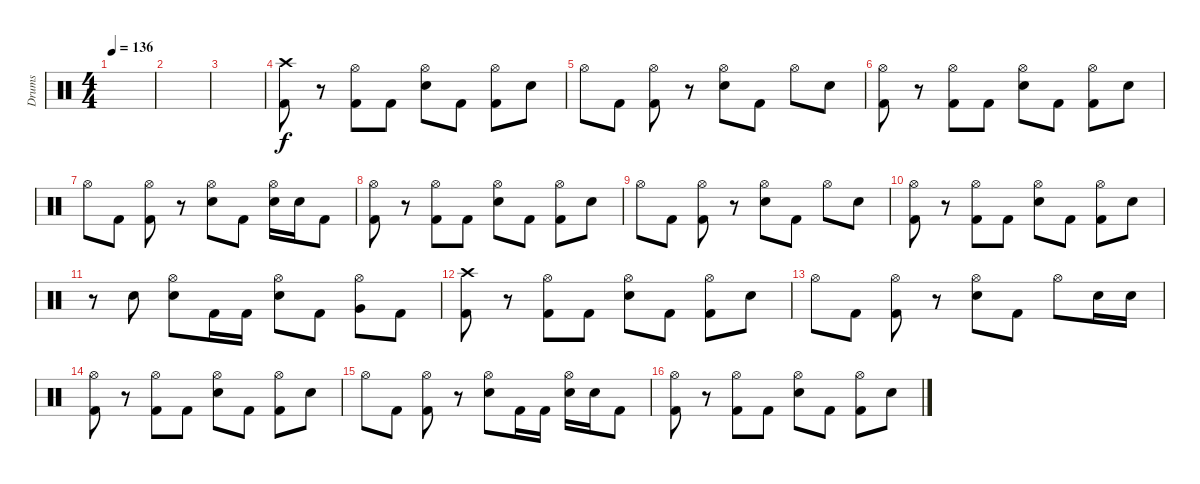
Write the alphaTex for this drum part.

\track ("Drums" "Drums") {instrument percussion}
\staff {score}
\articulation defaults
\ts (4 4)
\tempo 136
\clef neutral
\ks c
|
|
|
("Kick (hit) 2" "Crash high (hit)").8{dy f} r.8 ("Kick (hit) 2" "Hi-Hat (open)").8 "Kick (hit) 2".8 ("Snare (hit) 2" "Hi-Hat (open)").8 "Kick (hit) 2".8 ("Kick (hit) 2" "Hi-Hat (open)").8 "Snare (hit) 2".8 |
"Hi-Hat (open)".8 "Kick (hit) 2".8 ("Kick (hit) 2" "Hi-Hat (open)").8 r.8 ("Snare (hit) 2" "Hi-Hat (open)").8 "Kick (hit) 2".8 "Hi-Hat (open)".8 "Snare (hit) 2".8 |
("Kick (hit) 2" "Hi-Hat (open)").8 r.8 ("Kick (hit) 2" "Hi-Hat (open)").8 "Kick (hit) 2".8 ("Snare (hit) 2" "Hi-Hat (open)").8 "Kick (hit) 2".8 ("Kick (hit) 2" "Hi-Hat (open)").8 "Snare (hit) 2".8 |
"Hi-Hat (open)".8 "Kick (hit) 2".8 ("Kick (hit) 2" "Hi-Hat (open)").8 r.8 ("Snare (hit) 2" "Hi-Hat (open)").8 "Kick (hit) 2".8 ("Snare (hit) 2" "Hi-Hat (open)").16 "Snare (hit) 2".16 "Kick (hit) 2".8 |
("Kick (hit) 2" "Hi-Hat (open)").8 r.8 ("Kick (hit) 2" "Hi-Hat (open)").8 "Kick (hit) 2".8 ("Snare (hit) 2" "Hi-Hat (open)").8 "Kick (hit) 2".8 ("Kick (hit) 2" "Hi-Hat (open)").8 "Snare (hit) 2".8 |
"Hi-Hat (open)".8 "Kick (hit) 2".8 ("Kick (hit) 2" "Hi-Hat (open)").8 r.8 ("Snare (hit) 2" "Hi-Hat (open)").8 "Kick (hit) 2".8 "Hi-Hat (open)".8 "Snare (hit) 2".8 |
("Kick (hit) 2" "Hi-Hat (open)").8 r.8 ("Kick (hit) 2" "Hi-Hat (open)").8 "Kick (hit) 2".8 ("Snare (hit) 2" "Hi-Hat (open)").8 "Kick (hit) 2".8 ("Kick (hit) 2" "Hi-Hat (open)").8 "Snare (hit) 2".8 |
r.8 "Snare (hit) 2".8 ("Snare (hit) 2" "Hi-Hat (open)").8 "Kick (hit) 2".16 "Kick (hit) 2".16 ("Snare (hit) 2" "Hi-Hat (open)").8 "Kick (hit) 2".8 ("Very Low Tom (hit)" "Hi-Hat (open)").8 "Kick (hit) 2".8 |
("Kick (hit) 2" "Crash high (hit)").8 r.8 ("Kick (hit) 2" "Hi-Hat (open)").8 "Kick (hit) 2".8 ("Snare (hit) 2" "Hi-Hat (open)").8 "Kick (hit) 2".8 ("Kick (hit) 2" "Hi-Hat (open)").8 "Snare (hit) 2".8 |
"Hi-Hat (open)".8 "Kick (hit) 2".8 ("Kick (hit) 2" "Hi-Hat (open)").8 r.8 ("Snare (hit) 2" "Hi-Hat (open)").8 "Kick (hit) 2".8 "Hi-Hat (open)".8 "Snare (hit) 2".16 "Snare (hit) 2".16 |
("Kick (hit) 2" "Hi-Hat (open)").8 r.8 ("Kick (hit) 2" "Hi-Hat (open)").8 "Kick (hit) 2".8 ("Snare (hit) 2" "Hi-Hat (open)").8 "Kick (hit) 2".8 ("Kick (hit) 2" "Hi-Hat (open)").8 "Snare (hit) 2".8 |
"Hi-Hat (open)".8 "Kick (hit) 2".8 ("Kick (hit) 2" "Hi-Hat (open)").8 r.8 ("Snare (hit) 2" "Hi-Hat (open)").8 "Kick (hit) 2".16 "Kick (hit) 2".16 ("Snare (hit) 2" "Hi-Hat (open)").16 "Snare (hit) 2".16 "Kick (hit) 2".8 |
("Kick (hit) 2" "Hi-Hat (open)").8 r.8 ("Kick (hit) 2" "Hi-Hat (open)").8 "Kick (hit) 2".8 ("Snare (hit) 2" "Hi-Hat (open)").8 "Kick (hit) 2".8 ("Kick (hit) 2" "Hi-Hat (open)").8 "Snare (hit) 2".8
